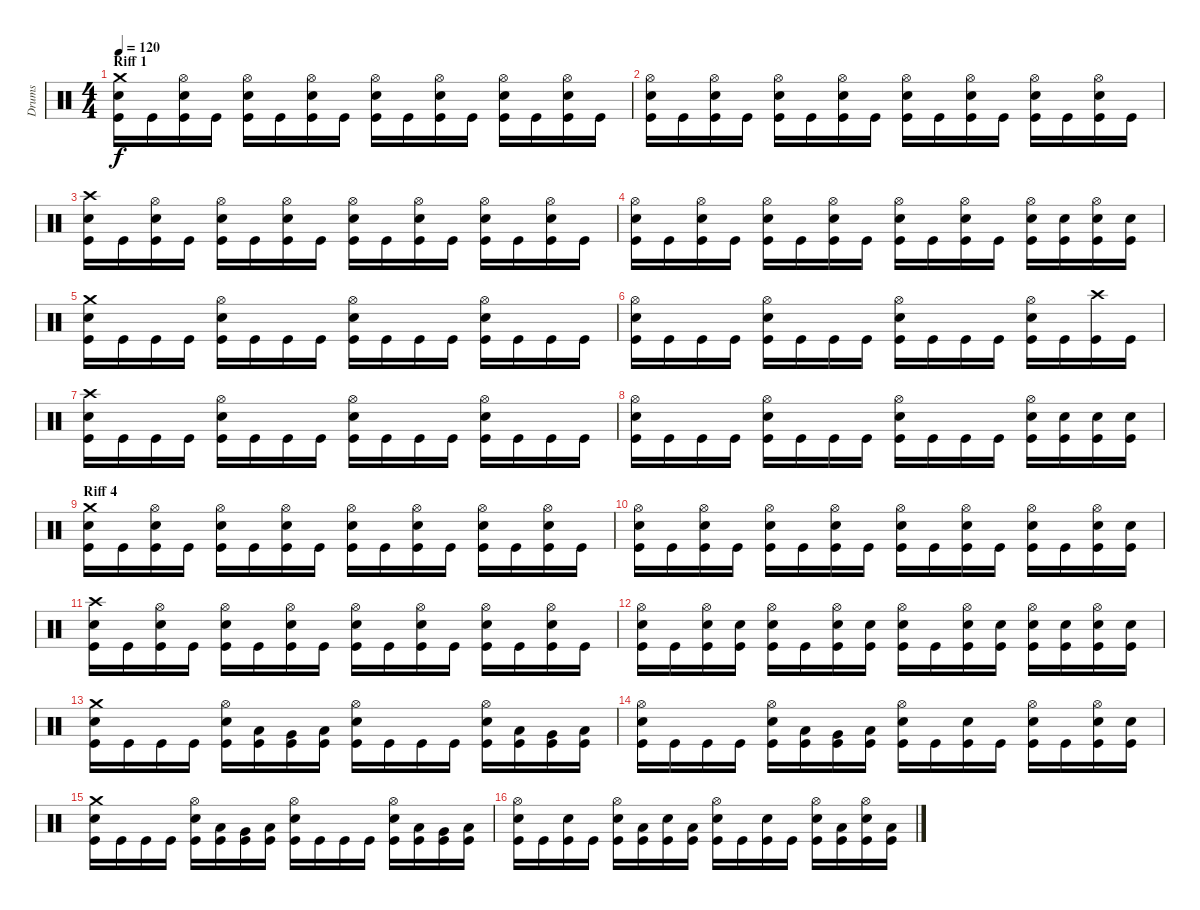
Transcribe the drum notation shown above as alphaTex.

\track ("Drums" "Drums") {instrument percussion}
\staff {score}
\articulation defaults
\ts (4 4)
\section ("" "Riff 1")
\tempo 120
\clef neutral
\ks c
("Crash medium (hit)" "Snare (hit) 2" "Kick (hit)").16{dy f} "Kick (hit)".16 ("Hi-Hat (open)" "Snare (hit) 2" "Kick (hit)").16 "Kick (hit)".16 ("Hi-Hat (open)" "Snare (hit) 2" "Kick (hit)").16 "Kick (hit)".16 ("Hi-Hat (open)" "Snare (hit) 2" "Kick (hit)").16 "Kick (hit)".16 ("Hi-Hat (open)" "Snare (hit) 2" "Kick (hit)").16 "Kick (hit)".16 ("Hi-Hat (open)" "Snare (hit) 2" "Kick (hit)").16 "Kick (hit)".16 ("Hi-Hat (open)" "Snare (hit) 2" "Kick (hit)").16 "Kick (hit)".16 ("Hi-Hat (open)" "Snare (hit) 2" "Kick (hit)").16 "Kick (hit)".16 |
("Hi-Hat (open)" "Snare (hit) 2" "Kick (hit)").16 "Kick (hit)".16 ("Hi-Hat (open)" "Snare (hit) 2" "Kick (hit)").16 "Kick (hit)".16 ("Hi-Hat (open)" "Snare (hit) 2" "Kick (hit)").16 "Kick (hit)".16 ("Hi-Hat (open)" "Snare (hit) 2" "Kick (hit)").16 "Kick (hit)".16 ("Hi-Hat (open)" "Snare (hit) 2" "Kick (hit)").16 "Kick (hit)".16 ("Hi-Hat (open)" "Snare (hit) 2" "Kick (hit)").16 "Kick (hit)".16 ("Hi-Hat (open)" "Snare (hit) 2" "Kick (hit)").16 "Kick (hit)".16 ("Hi-Hat (open)" "Snare (hit) 2" "Kick (hit)").16 "Kick (hit)".16 |
("Crash high (hit)" "Snare (hit) 2" "Kick (hit)").16 "Kick (hit)".16 ("Hi-Hat (open)" "Snare (hit) 2" "Kick (hit)").16 "Kick (hit)".16 ("Hi-Hat (open)" "Snare (hit) 2" "Kick (hit)").16 "Kick (hit)".16 ("Hi-Hat (open)" "Snare (hit) 2" "Kick (hit)").16 "Kick (hit)".16 ("Hi-Hat (open)" "Snare (hit) 2" "Kick (hit)").16 "Kick (hit)".16 ("Hi-Hat (open)" "Snare (hit) 2" "Kick (hit)").16 "Kick (hit)".16 ("Hi-Hat (open)" "Snare (hit) 2" "Kick (hit)").16 "Kick (hit)".16 ("Hi-Hat (open)" "Snare (hit) 2" "Kick (hit)").16 "Kick (hit)".16 |
("Hi-Hat (open)" "Snare (hit) 2" "Kick (hit)").16 "Kick (hit)".16 ("Hi-Hat (open)" "Snare (hit) 2" "Kick (hit)").16 "Kick (hit)".16 ("Hi-Hat (open)" "Snare (hit) 2" "Kick (hit)").16 "Kick (hit)".16 ("Hi-Hat (open)" "Snare (hit) 2" "Kick (hit)").16 "Kick (hit)".16 ("Hi-Hat (open)" "Snare (hit) 2" "Kick (hit)").16 "Kick (hit)".16 ("Hi-Hat (open)" "Snare (hit) 2" "Kick (hit)").16 "Kick (hit)".16 ("Hi-Hat (open)" "Snare (hit) 2" "Kick (hit)").16 ("Electric Snare (hit)" "Kick (hit)").16 ("Hi-Hat (open)" "Snare (hit) 2" "Kick (hit)").16 ("Snare (hit) 2" "Kick (hit)").16 |
("Crash medium (hit)" "Snare (hit) 2" "Kick (hit)").16 "Kick (hit)".16 "Kick (hit)".16 "Kick (hit)".16 ("Hi-Hat (open)" "Snare (hit) 2" "Kick (hit)").16 "Kick (hit)".16 "Kick (hit)".16 "Kick (hit)".16 ("Hi-Hat (open)" "Snare (hit) 2" "Kick (hit)").16 "Kick (hit)".16 "Kick (hit)".16 "Kick (hit)".16 ("Hi-Hat (open)" "Snare (hit) 2" "Kick (hit)").16 "Kick (hit)".16 "Kick (hit)".16 "Kick (hit)".16 |
("Hi-Hat (open)" "Snare (hit) 2" "Kick (hit)").16 "Kick (hit)".16 "Kick (hit)".16 "Kick (hit)".16 ("Hi-Hat (open)" "Snare (hit) 2" "Kick (hit)").16 "Kick (hit)".16 "Kick (hit)".16 "Kick (hit)".16 ("Hi-Hat (open)" "Snare (hit) 2" "Kick (hit)").16 "Kick (hit)".16 "Kick (hit)".16 "Kick (hit)".16 ("Hi-Hat (open)" "Snare (hit) 2" "Kick (hit)").16 "Kick (hit)".16 ("Crash high (hit)" "Kick (hit)").16 "Kick (hit)".16 |
("Crash high (hit)" "Snare (hit) 2" "Kick (hit)").16 "Kick (hit)".16 "Kick (hit)".16 "Kick (hit)".16 ("Hi-Hat (open)" "Snare (hit) 2" "Kick (hit)").16 "Kick (hit)".16 "Kick (hit)".16 "Kick (hit)".16 ("Hi-Hat (open)" "Snare (hit) 2" "Kick (hit)").16 "Kick (hit)".16 "Kick (hit)".16 "Kick (hit)".16 ("Hi-Hat (open)" "Snare (hit) 2" "Kick (hit)").16 "Kick (hit)".16 "Kick (hit)".16 "Kick (hit)".16 |
("Hi-Hat (open)" "Snare (hit) 2" "Kick (hit)").16 "Kick (hit)".16 "Kick (hit)".16 "Kick (hit)".16 ("Hi-Hat (open)" "Snare (hit) 2" "Kick (hit)").16 "Kick (hit)".16 "Kick (hit)".16 "Kick (hit)".16 ("Hi-Hat (open)" "Snare (hit) 2" "Kick (hit)").16 "Kick (hit)".16 "Kick (hit)".16 "Kick (hit)".16 ("Hi-Hat (open)" "Snare (hit) 2" "Kick (hit)").16 ("Electric Snare (hit)" "Kick (hit)").16 ("Snare (hit) 2" "Kick (hit)").16 ("Snare (hit) 2" "Kick (hit)").16 |
\section ("" "Riff 4")
("Crash medium (hit)" "Snare (hit) 2" "Kick (hit)").16 "Kick (hit)".16 ("Hi-Hat (open)" "Snare (hit) 2" "Kick (hit)").16 "Kick (hit)".16 ("Hi-Hat (open)" "Snare (hit) 2" "Kick (hit)").16 "Kick (hit)".16 ("Hi-Hat (open)" "Snare (hit) 2" "Kick (hit)").16 "Kick (hit)".16 ("Hi-Hat (open)" "Snare (hit) 2" "Kick (hit)").16 "Kick (hit)".16 ("Hi-Hat (open)" "Snare (hit) 2" "Kick (hit)").16 "Kick (hit)".16 ("Hi-Hat (open)" "Snare (hit) 2" "Kick (hit)").16 "Kick (hit)".16 ("Hi-Hat (open)" "Snare (hit) 2" "Kick (hit)").16 "Kick (hit)".16 |
("Hi-Hat (open)" "Snare (hit) 2" "Kick (hit)").16 "Kick (hit)".16 ("Hi-Hat (open)" "Snare (hit) 2" "Kick (hit)").16 "Kick (hit)".16 ("Hi-Hat (open)" "Snare (hit) 2" "Kick (hit)").16 "Kick (hit)".16 ("Hi-Hat (open)" "Snare (hit) 2" "Kick (hit)").16 "Kick (hit)".16 ("Hi-Hat (open)" "Snare (hit) 2" "Kick (hit)").16 "Kick (hit)".16 ("Hi-Hat (open)" "Snare (hit) 2" "Kick (hit)").16 "Kick (hit)".16 ("Hi-Hat (open)" "Snare (hit) 2" "Kick (hit)").16 "Kick (hit)".16 ("Hi-Hat (open)" "Snare (hit) 2" "Kick (hit)").16 ("Snare (hit) 2" "Kick (hit)").16 |
("Crash high (hit)" "Snare (hit) 2" "Kick (hit)").16 "Kick (hit)".16 ("Hi-Hat (open)" "Snare (hit) 2" "Kick (hit)").16 "Kick (hit)".16 ("Hi-Hat (open)" "Snare (hit) 2" "Kick (hit)").16 "Kick (hit)".16 ("Hi-Hat (open)" "Snare (hit) 2" "Kick (hit)").16 "Kick (hit)".16 ("Hi-Hat (open)" "Snare (hit) 2" "Kick (hit)").16 "Kick (hit)".16 ("Hi-Hat (open)" "Snare (hit) 2" "Kick (hit)").16 "Kick (hit)".16 ("Hi-Hat (open)" "Snare (hit) 2" "Kick (hit)").16 "Kick (hit)".16 ("Hi-Hat (open)" "Snare (hit) 2" "Kick (hit)").16 "Kick (hit)".16 |
("Hi-Hat (open)" "Snare (hit) 2" "Kick (hit)").16 "Kick (hit)".16 ("Hi-Hat (open)" "Snare (hit) 2" "Kick (hit)").16 ("Snare (hit) 2" "Kick (hit)").16 ("Hi-Hat (open)" "Snare (hit) 2" "Kick (hit)").16 "Kick (hit)".16 ("Hi-Hat (open)" "Snare (hit) 2" "Kick (hit)").16 ("Snare (hit) 2" "Kick (hit)").16 ("Hi-Hat (open)" "Snare (hit) 2" "Kick (hit)").16 "Kick (hit)".16 ("Hi-Hat (open)" "Snare (hit) 2" "Kick (hit)").16 ("Snare (hit) 2" "Kick (hit)").16 ("Hi-Hat (open)" "Snare (hit) 2" "Kick (hit)").16 ("Electric Snare (hit)" "Kick (hit)").16 ("Hi-Hat (open)" "Snare (hit) 2" "Kick (hit)").16 ("Snare (hit) 2" "Kick (hit)").16 |
("Crash medium (hit)" "Snare (hit) 2" "Kick (hit)").16 "Kick (hit)".16 "Kick (hit)".16 "Kick (hit)".16 ("Hi-Hat (open)" "Snare (hit) 2" "Kick (hit)").16 ("Low Tom (hit)" "Kick (hit)").16 ("Very Low Tom (hit)" "Kick (hit)").16 ("Low Floor Tom (hit)" "Kick (hit)").16 ("Hi-Hat (open)" "Snare (hit) 2" "Kick (hit)").16 "Kick (hit)".16 "Kick (hit)".16 "Kick (hit)".16 ("Hi-Hat (open)" "Snare (hit) 2" "Kick (hit)").16 ("Low Tom (hit)" "Kick (hit)").16 ("Very Low Tom (hit)" "Kick (hit)").16 ("Low Floor Tom (hit)" "Kick (hit)").16 |
("Hi-Hat (open)" "Snare (hit) 2" "Kick (hit)").16 "Kick (hit)".16 "Kick (hit)".16 "Kick (hit)".16 ("Hi-Hat (open)" "Snare (hit) 2" "Kick (hit)").16 ("Low Tom (hit)" "Kick (hit)").16 ("Very Low Tom (hit)" "Kick (hit)").16 ("Low Floor Tom (hit)" "Kick (hit)").16 ("Hi-Hat (open)" "Snare (hit) 2" "Kick (hit)").16 "Kick (hit)".16 ("Snare (hit) 2" "Kick (hit)").16 "Kick (hit)".16 ("Hi-Hat (open)" "Snare (hit) 2" "Kick (hit)").16 "Kick (hit)".16 ("Hi-Hat (open)" "Snare (hit) 2" "Kick (hit)").16 ("Snare (hit) 2" "Kick (hit)").16 |
("Crash medium (hit)" "Snare (hit) 2" "Kick (hit)").16 "Kick (hit)".16 "Kick (hit)".16 "Kick (hit)".16 ("Hi-Hat (open)" "Snare (hit) 2" "Kick (hit)").16 ("Low Tom (hit)" "Kick (hit)").16 ("Very Low Tom (hit)" "Kick (hit)").16 ("Low Floor Tom (hit)" "Kick (hit)").16 ("Hi-Hat (open)" "Snare (hit) 2" "Kick (hit)").16 "Kick (hit)".16 "Kick (hit)".16 "Kick (hit)".16 ("Hi-Hat (open)" "Snare (hit) 2" "Kick (hit)").16 ("Low Tom (hit)" "Kick (hit)").16 ("Very Low Tom (hit)" "Kick (hit)").16 ("Low Floor Tom (hit)" "Kick (hit)").16 |
("Hi-Hat (open)" "Snare (hit) 2" "Kick (hit)").16 "Kick (hit)".16 ("Snare (hit) 2" "Kick (hit)").16 "Kick (hit)".16 ("Hi-Hat (open)" "Snare (hit) 2" "Kick (hit)").16 ("Low Tom (hit)" "Kick (hit)").16 ("Snare (hit) 2" "Kick (hit)").16 ("Low Floor Tom (hit)" "Kick (hit)").16 ("Hi-Hat (open)" "Snare (hit) 2" "Kick (hit)").16 "Kick (hit)".16 ("Snare (hit) 2" "Kick (hit)").16 "Kick (hit)".16 ("Hi-Hat (open)" "Snare (hit) 2" "Kick (hit)").16 ("Low Tom (hit)" "Kick (hit)").16 ("Hi-Hat (open)" "Snare (hit) 2" "Kick (hit)").16 ("Low Floor Tom (hit)" "Kick (hit)").16
